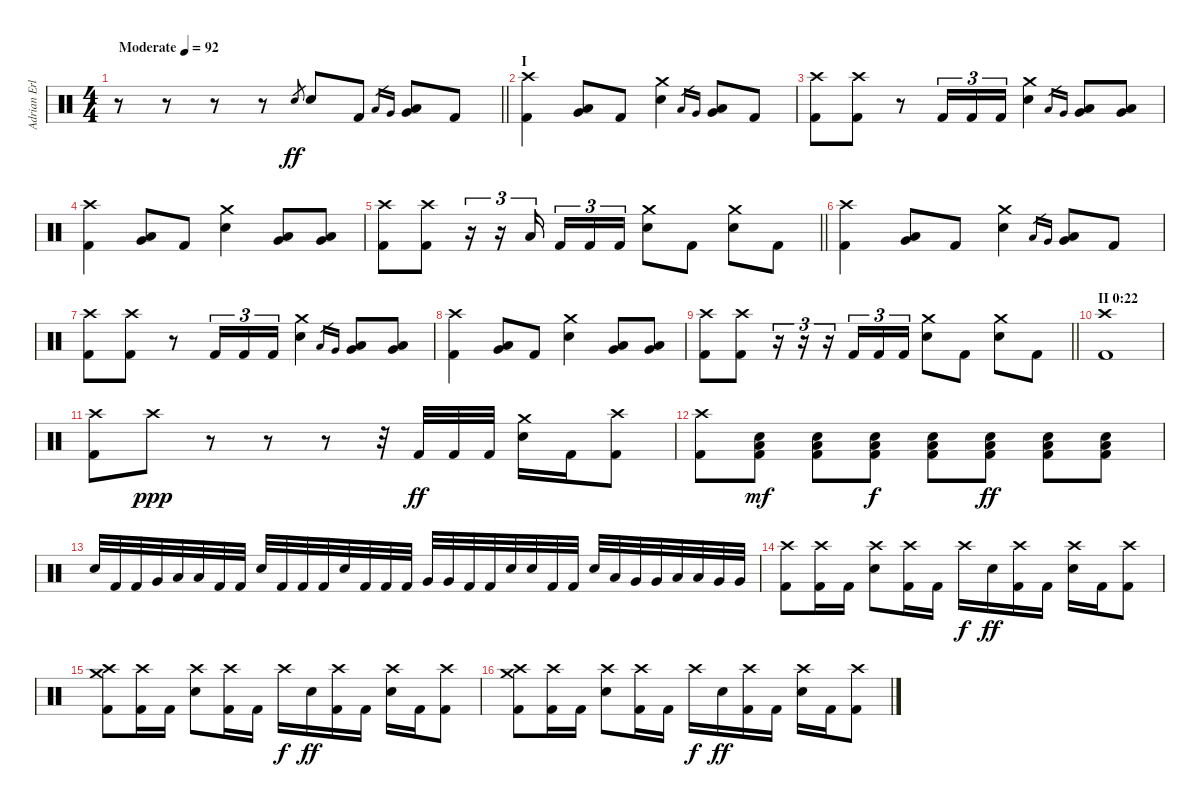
\track ("Adrian Erlandsson (drums)" "Adrian Erl") {instrument percussion}
\staff {score}
\articulation defaults
\ts (4 4)
\tempo (92 "Moderate")
\clef neutral
\barLineRight lightlight
\ks c
r.8{dy ff} r.8 r.8 r.8 "Electric Snare (hit)".8{gr} "Electric Snare (hit)".8 "Kick (hit) 2".8 "Low Tom (hit)".16{gr} "Very Low Tom (hit)".16{gr} ("Low Tom (hit)" "Very Low Tom (hit)").8 "Kick (hit) 2".8 |
\section ("" "I")
("Crash high (hit)" "Kick (hit) 2").4 ("Low Floor Tom (hit)" "Very Low Tom (hit)").8 "Kick (hit) 2".8 ("Crash medium (hit)" "Electric Snare (hit)").4 "Low Tom (hit)".16{gr} "Very Low Tom (hit)".16{gr} ("Low Tom (hit)" "Very Low Tom (hit)").8 "Kick (hit) 2".8 |
("Crash high (hit)" "Kick (hit) 2").8 ("Crash high (hit)" "Kick (hit) 2").8 r.8 "Kick (hit) 2".16{tu (3 2)} "Kick (hit) 2".16{tu (3 2)} "Kick (hit) 2".16{tu (3 2)} ("Crash medium (hit)" "Electric Snare (hit)").4 "Low Tom (hit)".16{gr} "Very Low Tom (hit)".16{gr} ("Low Tom (hit)" "Very Low Tom (hit)").8 ("Low Floor Tom (hit)" "Very Low Tom (hit)").8 |
("Crash high (hit)" "Kick (hit) 2").4 ("Low Floor Tom (hit)" "Very Low Tom (hit)").8 "Kick (hit) 2".8 ("Crash medium (hit)" "Electric Snare (hit)").4 ("Low Tom (hit)" "Very Low Tom (hit)").8 ("Low Floor Tom (hit)" "Very Low Tom (hit)").8 |
\barLineRight lightlight
("Crash high (hit)" "Kick (hit) 2").8 ("Crash high (hit)" "Kick (hit) 2").8 r.16{tu (3 2)} r.16{tu (3 2)} "Low Tom (hit)".16{tu (3 2) beam splitsecondary} "Kick (hit) 2".16{tu (3 2)} "Kick (hit) 2".16{tu (3 2)} "Kick (hit) 2".16{tu (3 2)} ("Crash medium (hit)" "Electric Snare (hit)").8 "Kick (hit) 2".8 ("Crash medium (hit)" "Electric Snare (hit)").8 "Kick (hit) 2".8 |
("Crash high (hit)" "Kick (hit) 2").4 ("Low Floor Tom (hit)" "Very Low Tom (hit)").8 "Kick (hit) 2".8 ("Crash medium (hit)" "Electric Snare (hit)").4 "Low Tom (hit)".16{gr} "Very Low Tom (hit)".16{gr} ("Low Tom (hit)" "Very Low Tom (hit)").8 "Kick (hit) 2".8 |
("Crash high (hit)" "Kick (hit) 2").8 ("Crash high (hit)" "Kick (hit) 2").8 r.8 "Kick (hit) 2".16{tu (3 2)} "Kick (hit) 2".16{tu (3 2)} "Kick (hit) 2".16{tu (3 2)} ("Crash medium (hit)" "Electric Snare (hit)").4 "Low Tom (hit)".16{gr} "Very Low Tom (hit)".16{gr} ("Low Tom (hit)" "Very Low Tom (hit)").8 ("Low Floor Tom (hit)" "Very Low Tom (hit)").8 |
("Crash high (hit)" "Kick (hit) 2").4 ("Low Floor Tom (hit)" "Very Low Tom (hit)").8 "Kick (hit) 2".8 ("Crash medium (hit)" "Electric Snare (hit)").4 ("Low Tom (hit)" "Very Low Tom (hit)").8 ("Low Floor Tom (hit)" "Very Low Tom (hit)").8 |
\barLineRight lightlight
("Crash high (hit)" "Kick (hit) 2").8 ("Crash high (hit)" "Kick (hit) 2").8 r.16{tu (3 2)} r.16{tu (3 2)} r.16{tu (3 2)} "Kick (hit) 2".16{tu (3 2)} "Kick (hit) 2".16{tu (3 2)} "Kick (hit) 2".16{tu (3 2)} ("Crash medium (hit)" "Electric Snare (hit)").8 "Kick (hit) 2".8 ("Crash medium (hit)" "Electric Snare (hit)").8 "Kick (hit) 2".8 |
\section ("" "II 0:22")
("Crash high (hit)" "Kick (hit) 2").1 |
("Crash high (hit)" "Kick (hit) 2").8 "Crash high (hit)".8{dy ppp} r.8 r.8 r.8 r.32 "Kick (hit) 2".32{dy ff} "Kick (hit) 2".32 "Kick (hit) 2".32 ("Crash medium (hit)" "Electric Snare (hit)").16 "Kick (hit) 2".16 ("Crash high (hit)" "Kick (hit) 2").8 |
("Crash high (hit)" "Kick (hit) 2").8 ("Electric Snare (hit)" "Low Floor Tom (hit)" "Kick (hit) 2").8{dy mf} ("Electric Snare (hit)" "Low Floor Tom (hit)" "Kick (hit) 2").8 ("Electric Snare (hit)" "Low Floor Tom (hit)" "Kick (hit) 2").8{dy f} ("Electric Snare (hit)" "Low Floor Tom (hit)" "Kick (hit) 2").8 ("Electric Snare (hit)" "Low Floor Tom (hit)" "Kick (hit) 2").8{dy ff} ("Electric Snare (hit)" "Low Floor Tom (hit)" "Kick (hit) 2").8 ("Electric Snare (hit)" "Low Floor Tom (hit)" "Kick (hit) 2").8 |
"Electric Snare (hit)".32 "Kick (hit) 2".32 "Kick (hit) 2".32 "Very Low Tom (hit)".32 "Low Tom (hit)".32 "Low Tom (hit)".32 "Kick (hit) 2".32 "Kick (hit) 2".32 "Electric Snare (hit)".32 "Kick (hit) 2".32 "Kick (hit) 2".32 "Kick (hit) 2".32 "Electric Snare (hit)".32 "Kick (hit) 2".32 "Kick (hit) 2".32 "Kick (hit) 2".32 "Very Low Tom (hit)".32 "Very Low Tom (hit)".32 "Kick (hit) 2".32 "Kick (hit) 2".32 "Electric Snare (hit)".32 "Electric Snare (hit)".32 "Kick (hit) 2".32 "Kick (hit) 2".32 "Electric Snare (hit)".32 "Low Floor Tom (hit)".32 "Very Low Tom (hit)".32 "Very Low Tom (hit)".32 "Low Tom (hit)".32 "Low Tom (hit)".32 "Very Low Tom (hit)".32 "Very Low Tom (hit)".32 |
("Crash high (hit)" "Kick (hit) 2").8 ("Crash high (hit)" "Kick (hit) 2").16 "Kick (hit) 2".16 ("Crash high (hit)" "Electric Snare (hit)").8 ("Crash high (hit)" "Kick (hit) 2").16 "Kick (hit) 2".16 "Crash high (hit)".16{dy f} "Electric Snare (hit)".16{dy ff} ("Crash high (hit)" "Kick (hit) 2").16 "Kick (hit) 2".16 ("Crash high (hit)" "Electric Snare (hit)").16 "Kick (hit) 2".16 ("Crash high (hit)" "Kick (hit) 2").8 |
("Crash high (hit)" "Crash medium (hit)" "Kick (hit) 2").8 ("Crash high (hit)" "Kick (hit) 2").16 "Kick (hit) 2".16 ("Crash high (hit)" "Electric Snare (hit)").8 ("Crash high (hit)" "Kick (hit) 2").16 "Kick (hit) 2".16 "Crash high (hit)".16{dy f} "Electric Snare (hit)".16{dy ff} ("Crash high (hit)" "Kick (hit) 2").16 "Kick (hit) 2".16 ("Crash high (hit)" "Electric Snare (hit)").16 "Kick (hit) 2".16 ("Crash high (hit)" "Kick (hit) 2").8 |
("Crash high (hit)" "Crash medium (hit)" "Kick (hit) 2").8 ("Crash high (hit)" "Kick (hit) 2").16 "Kick (hit) 2".16 ("Crash high (hit)" "Electric Snare (hit)").8 ("Crash high (hit)" "Kick (hit) 2").16 "Kick (hit) 2".16 "Crash high (hit)".16{dy f} "Electric Snare (hit)".16{dy ff} ("Crash high (hit)" "Kick (hit) 2").16 "Kick (hit) 2".16 ("Crash high (hit)" "Electric Snare (hit)").16 "Kick (hit) 2".16 ("Crash high (hit)" "Kick (hit) 2").8
